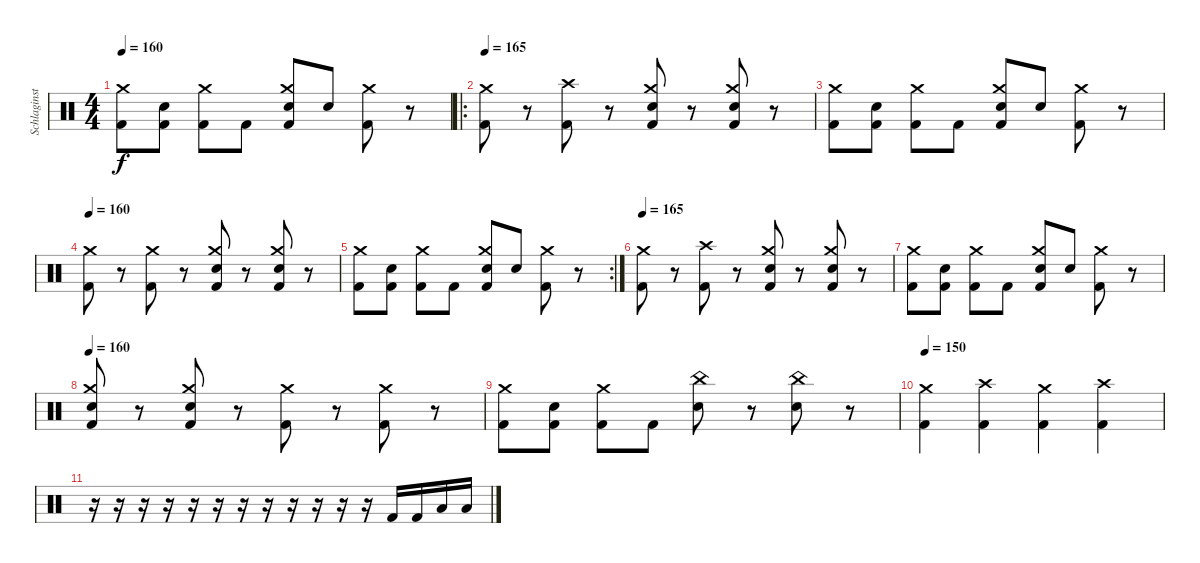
\track ("Schlaginstrumente - Auswahl" "Schlaginst") {instrument percussion}
\staff {score}
\articulation defaults
\ts (4 4)
\tempo 160
\clef neutral
\ks c
("Kick (hit) 2" "Crash medium (hit)").8{dy f} ("Kick (hit) 2" "Electric Snare (hit)").8 ("Kick (hit) 2" "Crash medium (hit)").8 "Kick (hit) 2".8 ("Kick (hit) 2" "Electric Snare (hit)" "Crash medium (hit)").8 "Electric Snare (hit)".8 ("Kick (hit) 2" "Crash medium (hit)").8 r.8 |
\ro
\tempo 165
("Kick (hit) 2" "Crash medium (hit)").8 r.8 ("Kick (hit) 2" "Crash high (hit)").8 r.8 ("Kick (hit) 2" "Electric Snare (hit)" "Crash medium (hit)").8 r.8 ("Kick (hit) 2" "Electric Snare (hit)" "Crash medium (hit)").8 r.8 |
("Kick (hit) 2" "Crash medium (hit)").8 ("Kick (hit) 2" "Electric Snare (hit)").8 ("Kick (hit) 2" "Crash medium (hit)").8 "Kick (hit) 2".8 ("Kick (hit) 2" "Electric Snare (hit)" "Crash medium (hit)").8 "Electric Snare (hit)".8 ("Kick (hit) 2" "Crash medium (hit)").8 r.8 |
\tempo 160
("Kick (hit) 2" "Crash medium (hit)").8 r.8 ("Kick (hit) 2" "Crash medium (hit)").8 r.8 ("Kick (hit) 2" "Electric Snare (hit)" "Crash medium (hit)").8 r.8 ("Kick (hit) 2" "Electric Snare (hit)" "Crash medium (hit)").8 r.8 |
\rc 2
("Kick (hit) 2" "Crash medium (hit)").8 ("Kick (hit) 2" "Electric Snare (hit)").8 ("Kick (hit) 2" "Crash medium (hit)").8 "Kick (hit) 2".8 ("Kick (hit) 2" "Electric Snare (hit)" "Crash medium (hit)").8 "Electric Snare (hit)".8 ("Kick (hit) 2" "Crash medium (hit)").8 r.8 |
\tempo 165
("Kick (hit) 2" "Crash medium (hit)").8 r.8 ("Kick (hit) 2" "Crash high (hit)").8 r.8 ("Kick (hit) 2" "Electric Snare (hit)" "Crash medium (hit)").8 r.8 ("Kick (hit) 2" "Electric Snare (hit)" "Crash medium (hit)").8 r.8 |
("Kick (hit) 2" "Crash medium (hit)").8 ("Kick (hit) 2" "Electric Snare (hit)").8 ("Kick (hit) 2" "Crash medium (hit)").8 "Kick (hit) 2".8 ("Kick (hit) 2" "Electric Snare (hit)" "Crash medium (hit)").8 "Electric Snare (hit)".8 ("Kick (hit) 2" "Crash medium (hit)").8 r.8 |
\tempo 160
("Kick (hit) 2" "Electric Snare (hit)" "Crash medium (hit)").8 r.8 ("Kick (hit) 2" "Electric Snare (hit)" "Crash medium (hit)").8 r.8 ("Kick (hit) 2" "Crash medium (hit)").8 r.8 ("Kick (hit) 2" "Crash medium (hit)").8 r.8 |
("Kick (hit) 2" "Crash medium (hit)").8 ("Kick (hit) 2" "Electric Snare (hit)").8 ("Kick (hit) 2" "Crash medium (hit)").8 "Kick (hit) 2".8 ("Electric Snare (hit)" "China (hit)").8 r.8 ("Electric Snare (hit)" "China (hit)").8 r.8 |
\tempo 160
\tempo 150
("Kick (hit) 2" "Crash medium (hit)").4 ("Kick (hit) 2" "Crash high (hit)").4 ("Kick (hit) 2" "Crash medium (hit)").4 ("Kick (hit) 2" "Crash high (hit)").4 |
r.16 r.16 r.16 r.16 r.16 r.16 r.16 r.16 r.16 r.16 r.16 r.16 "Kick (hit) 2".16 "Kick (hit) 2".16 "Low Floor Tom (hit)".16 "Low Floor Tom (hit)".16
